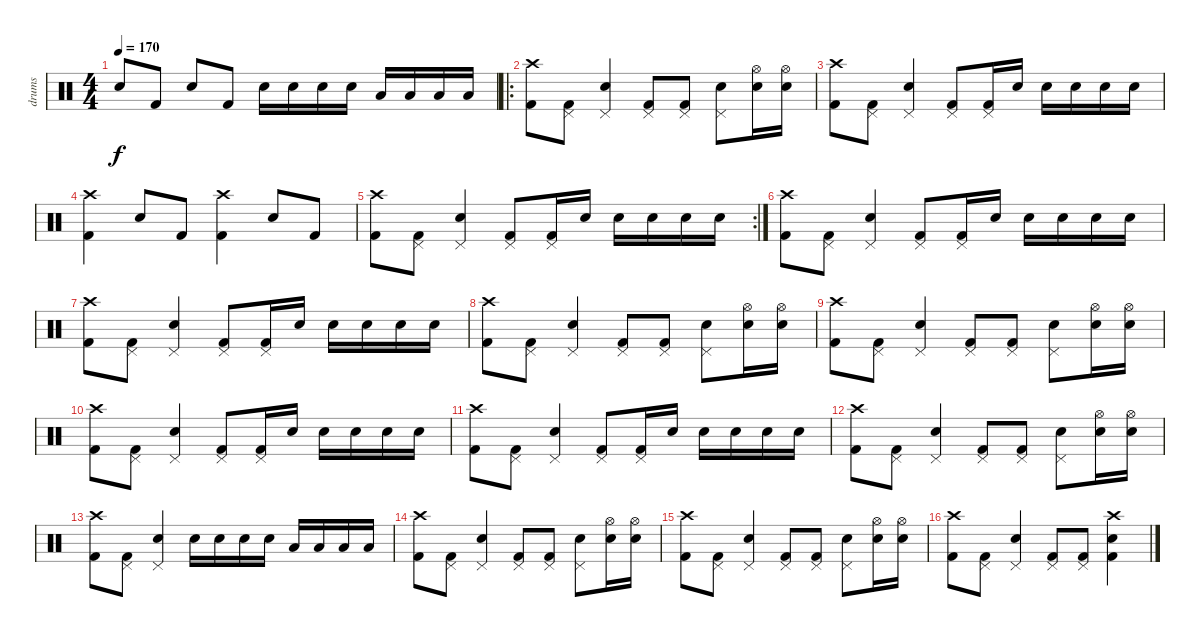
\track ("drums" "drums") {instrument percussion}
\staff {score}
\articulation defaults
\ts (4 4)
\tempo 170
\clef neutral
\ks c "Electric Snare (hit)".8{dy f} "Kick (hit) 2".8 "Electric Snare (hit)".8 "Kick (hit) 2".8 "Electric Snare (hit)".16 "Electric Snare (hit)".16 "Electric Snare (hit)".16 "Electric Snare (hit)".16 "Low Tom (hit)".16 "Low Tom (hit)".16 "Low Tom (hit)".16 "Low Tom (hit)".16
|
\ro
("Crash high (hit)" "Kick (hit) 2").8 ("Pedal Hi-Hat (hit)" "Kick (hit) 2").8 ("Pedal Hi-Hat (hit)" "Electric Snare (hit)").4 ("Pedal Hi-Hat (hit)" "Kick (hit) 2").8 ("Pedal Hi-Hat (hit)" "Kick (hit) 2").8 ("Pedal Hi-Hat (hit)" "Electric Snare (hit)").8 ("Hi-Hat (open)" "Electric Snare (hit)").16 ("Hi-Hat (open)" "Electric Snare (hit)").16 |
("Crash high (hit)" "Kick (hit) 2").8 ("Pedal Hi-Hat (hit)" "Kick (hit) 2").8 ("Pedal Hi-Hat (hit)" "Electric Snare (hit)").4 ("Pedal Hi-Hat (hit)" "Kick (hit) 2").8 ("Pedal Hi-Hat (hit)" "Kick (hit) 2").16 "Electric Snare (hit)".16 "Electric Snare (hit)".16 "Electric Snare (hit)".16 "Electric Snare (hit)".16 "Electric Snare (hit)".16 |
("Crash high (hit)" "Kick (hit) 2").4 "Electric Snare (hit)".8 "Kick (hit) 2".8 ("Crash high (hit)" "Kick (hit) 2").4 "Electric Snare (hit)".8 "Kick (hit) 2".8 |
\rc 2
("Crash high (hit)" "Kick (hit) 2").8 ("Pedal Hi-Hat (hit)" "Kick (hit) 2").8 ("Pedal Hi-Hat (hit)" "Electric Snare (hit)").4 ("Pedal Hi-Hat (hit)" "Kick (hit) 2").8 ("Pedal Hi-Hat (hit)" "Kick (hit) 2").16 "Electric Snare (hit)".16 "Electric Snare (hit)".16 "Electric Snare (hit)".16 "Electric Snare (hit)".16 "Electric Snare (hit)".16 |
("Crash high (hit)" "Kick (hit) 2").8 ("Pedal Hi-Hat (hit)" "Kick (hit) 2").8 ("Pedal Hi-Hat (hit)" "Electric Snare (hit)").4 ("Pedal Hi-Hat (hit)" "Kick (hit) 2").8 ("Pedal Hi-Hat (hit)" "Kick (hit) 2").16 "Electric Snare (hit)".16 "Electric Snare (hit)".16 "Electric Snare (hit)".16 "Electric Snare (hit)".16 "Electric Snare (hit)".16 |
("Crash high (hit)" "Kick (hit) 2").8 ("Pedal Hi-Hat (hit)" "Kick (hit) 2").8 ("Pedal Hi-Hat (hit)" "Electric Snare (hit)").4 ("Pedal Hi-Hat (hit)" "Kick (hit) 2").8 ("Pedal Hi-Hat (hit)" "Kick (hit) 2").16 "Electric Snare (hit)".16 "Electric Snare (hit)".16 "Electric Snare (hit)".16 "Electric Snare (hit)".16 "Electric Snare (hit)".16 |
("Crash high (hit)" "Kick (hit) 2").8 ("Pedal Hi-Hat (hit)" "Kick (hit) 2").8 ("Pedal Hi-Hat (hit)" "Electric Snare (hit)").4 ("Pedal Hi-Hat (hit)" "Kick (hit) 2").8 ("Pedal Hi-Hat (hit)" "Kick (hit) 2").8 ("Pedal Hi-Hat (hit)" "Electric Snare (hit)").8 ("Hi-Hat (open)" "Electric Snare (hit)").16 ("Hi-Hat (open)" "Electric Snare (hit)").16 |
("Crash high (hit)" "Kick (hit) 2").8 ("Pedal Hi-Hat (hit)" "Kick (hit) 2").8 ("Pedal Hi-Hat (hit)" "Electric Snare (hit)").4 ("Pedal Hi-Hat (hit)" "Kick (hit) 2").8 ("Pedal Hi-Hat (hit)" "Kick (hit) 2").8 ("Pedal Hi-Hat (hit)" "Electric Snare (hit)").8 ("Hi-Hat (open)" "Electric Snare (hit)").16 ("Hi-Hat (open)" "Electric Snare (hit)").16 |
("Crash high (hit)" "Kick (hit) 2").8 ("Pedal Hi-Hat (hit)" "Kick (hit) 2").8 ("Pedal Hi-Hat (hit)" "Electric Snare (hit)").4 ("Pedal Hi-Hat (hit)" "Kick (hit) 2").8 ("Pedal Hi-Hat (hit)" "Kick (hit) 2").16 "Electric Snare (hit)".16 "Electric Snare (hit)".16 "Electric Snare (hit)".16 "Electric Snare (hit)".16 "Electric Snare (hit)".16 |
("Crash high (hit)" "Kick (hit) 2").8 ("Pedal Hi-Hat (hit)" "Kick (hit) 2").8 ("Pedal Hi-Hat (hit)" "Electric Snare (hit)").4 ("Pedal Hi-Hat (hit)" "Kick (hit) 2").8 ("Pedal Hi-Hat (hit)" "Kick (hit) 2").16 "Electric Snare (hit)".16 "Electric Snare (hit)".16 "Electric Snare (hit)".16 "Electric Snare (hit)".16 "Electric Snare (hit)".16 |
("Crash high (hit)" "Kick (hit) 2").8 ("Pedal Hi-Hat (hit)" "Kick (hit) 2").8 ("Pedal Hi-Hat (hit)" "Electric Snare (hit)").4 ("Pedal Hi-Hat (hit)" "Kick (hit) 2").8 ("Pedal Hi-Hat (hit)" "Kick (hit) 2").8 ("Pedal Hi-Hat (hit)" "Electric Snare (hit)").8 ("Hi-Hat (open)" "Electric Snare (hit)").16 ("Hi-Hat (open)" "Electric Snare (hit)").16 |
("Crash high (hit)" "Kick (hit) 2").8 ("Pedal Hi-Hat (hit)" "Kick (hit) 2").8 ("Pedal Hi-Hat (hit)" "Electric Snare (hit)").4 "Electric Snare (hit)".16 "Electric Snare (hit)".16 "Electric Snare (hit)".16 "Electric Snare (hit)".16 "Low Tom (hit)".16 "Low Tom (hit)".16 "Low Tom (hit)".16 "Low Tom (hit)".16 |
("Crash high (hit)" "Kick (hit) 2").8 ("Pedal Hi-Hat (hit)" "Kick (hit) 2").8 ("Pedal Hi-Hat (hit)" "Electric Snare (hit)").4 ("Pedal Hi-Hat (hit)" "Kick (hit) 2").8 ("Pedal Hi-Hat (hit)" "Kick (hit) 2").8 ("Pedal Hi-Hat (hit)" "Electric Snare (hit)").8 ("Hi-Hat (open)" "Electric Snare (hit)").16 ("Hi-Hat (open)" "Electric Snare (hit)").16 |
("Crash high (hit)" "Kick (hit) 2").8 ("Pedal Hi-Hat (hit)" "Kick (hit) 2").8 ("Pedal Hi-Hat (hit)" "Electric Snare (hit)").4 ("Pedal Hi-Hat (hit)" "Kick (hit) 2").8 ("Pedal Hi-Hat (hit)" "Kick (hit) 2").8 ("Pedal Hi-Hat (hit)" "Electric Snare (hit)").8 ("Hi-Hat (open)" "Electric Snare (hit)").16 ("Hi-Hat (open)" "Electric Snare (hit)").16 |
("Crash high (hit)" "Kick (hit) 2").8 ("Pedal Hi-Hat (hit)" "Kick (hit) 2").8 ("Pedal Hi-Hat (hit)" "Electric Snare (hit)").4 ("Pedal Hi-Hat (hit)" "Kick (hit) 2").8 ("Pedal Hi-Hat (hit)" "Kick (hit) 2").8 ("Crash high (hit)" "Kick (hit) 2" "Electric Snare (hit)").4
